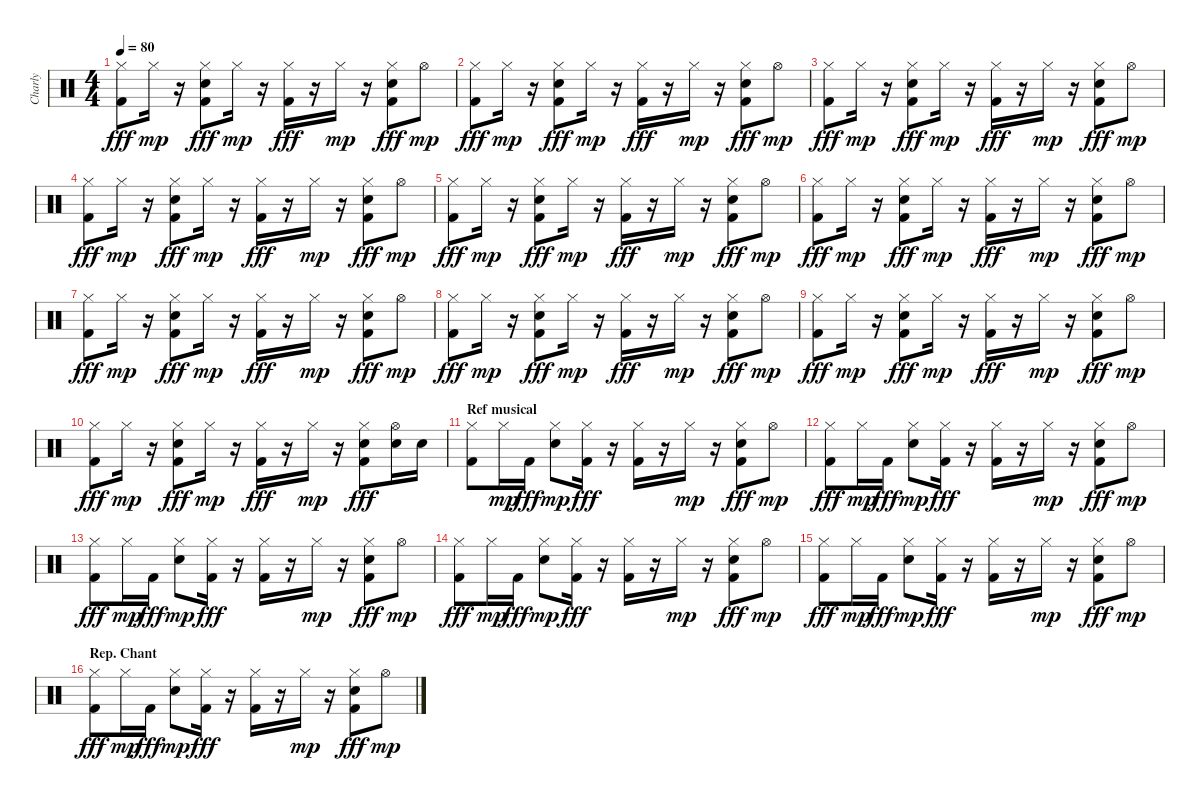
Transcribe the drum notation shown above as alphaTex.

\track ("Charly" "Charly") {instrument percussion}
\staff {score}
\articulation defaults
\ts (4 4)
\tempo 80
\clef neutral
\ks c
("Hi-Hat (closed)" "Kick (hit) 2").8{dy fff} "Hi-Hat (closed)".16{dy mp} r.16 ("Hi-Hat (closed)" "Snare (hit) 2" "Kick (hit) 2").8{dy fff} "Hi-Hat (closed)".16{dy mp} r.16 ("Hi-Hat (closed)" "Kick (hit) 2").16{dy fff} r.16 "Hi-Hat (closed)".16{dy mp} r.16 ("Hi-Hat (closed)" "Snare (hit) 2" "Kick (hit) 2").8{dy fff} "Hi-Hat (open)".8{dy mp} |
("Hi-Hat (closed)" "Kick (hit) 2").8{dy fff} "Hi-Hat (closed)".16{dy mp} r.16 ("Hi-Hat (closed)" "Snare (hit) 2" "Kick (hit) 2").8{dy fff} "Hi-Hat (closed)".16{dy mp} r.16 ("Hi-Hat (closed)" "Kick (hit) 2").16{dy fff} r.16 "Hi-Hat (closed)".16{dy mp} r.16 ("Hi-Hat (closed)" "Snare (hit) 2" "Kick (hit) 2").8{dy fff} "Hi-Hat (open)".8{dy mp} |
("Hi-Hat (closed)" "Kick (hit) 2").8{dy fff} "Hi-Hat (closed)".16{dy mp} r.16 ("Hi-Hat (closed)" "Snare (hit) 2" "Kick (hit) 2").8{dy fff} "Hi-Hat (closed)".16{dy mp} r.16 ("Hi-Hat (closed)" "Kick (hit) 2").16{dy fff} r.16 "Hi-Hat (closed)".16{dy mp} r.16 ("Hi-Hat (closed)" "Snare (hit) 2" "Kick (hit) 2").8{dy fff} "Hi-Hat (open)".8{dy mp} |
("Hi-Hat (closed)" "Kick (hit) 2").8{dy fff} "Hi-Hat (closed)".16{dy mp} r.16 ("Hi-Hat (closed)" "Snare (hit) 2" "Kick (hit) 2").8{dy fff} "Hi-Hat (closed)".16{dy mp} r.16 ("Hi-Hat (closed)" "Kick (hit) 2").16{dy fff} r.16 "Hi-Hat (closed)".16{dy mp} r.16 ("Hi-Hat (closed)" "Snare (hit) 2" "Kick (hit) 2").8{dy fff} "Hi-Hat (open)".8{dy mp} |
("Hi-Hat (closed)" "Kick (hit) 2").8{dy fff} "Hi-Hat (closed)".16{dy mp} r.16 ("Hi-Hat (closed)" "Snare (hit) 2" "Kick (hit) 2").8{dy fff} "Hi-Hat (closed)".16{dy mp} r.16 ("Hi-Hat (closed)" "Kick (hit) 2").16{dy fff} r.16 "Hi-Hat (closed)".16{dy mp} r.16 ("Hi-Hat (closed)" "Snare (hit) 2" "Kick (hit) 2").8{dy fff} "Hi-Hat (open)".8{dy mp} |
("Hi-Hat (closed)" "Kick (hit) 2").8{dy fff} "Hi-Hat (closed)".16{dy mp} r.16 ("Hi-Hat (closed)" "Snare (hit) 2" "Kick (hit) 2").8{dy fff} "Hi-Hat (closed)".16{dy mp} r.16 ("Hi-Hat (closed)" "Kick (hit) 2").16{dy fff} r.16 "Hi-Hat (closed)".16{dy mp} r.16 ("Hi-Hat (closed)" "Snare (hit) 2" "Kick (hit) 2").8{dy fff} "Hi-Hat (open)".8{dy mp} |
("Hi-Hat (closed)" "Kick (hit) 2").8{dy fff} "Hi-Hat (closed)".16{dy mp} r.16 ("Hi-Hat (closed)" "Snare (hit) 2" "Kick (hit) 2").8{dy fff} "Hi-Hat (closed)".16{dy mp} r.16 ("Hi-Hat (closed)" "Kick (hit) 2").16{dy fff} r.16 "Hi-Hat (closed)".16{dy mp} r.16 ("Hi-Hat (closed)" "Snare (hit) 2" "Kick (hit) 2").8{dy fff} "Hi-Hat (open)".8{dy mp} |
("Hi-Hat (closed)" "Kick (hit) 2").8{dy fff} "Hi-Hat (closed)".16{dy mp} r.16 ("Hi-Hat (closed)" "Snare (hit) 2" "Kick (hit) 2").8{dy fff} "Hi-Hat (closed)".16{dy mp} r.16 ("Hi-Hat (closed)" "Kick (hit) 2").16{dy fff} r.16 "Hi-Hat (closed)".16{dy mp} r.16 ("Hi-Hat (closed)" "Snare (hit) 2" "Kick (hit) 2").8{dy fff} "Hi-Hat (open)".8{dy mp} |
("Hi-Hat (closed)" "Kick (hit) 2").8{dy fff} "Hi-Hat (closed)".16{dy mp} r.16 ("Hi-Hat (closed)" "Snare (hit) 2" "Kick (hit) 2").8{dy fff} "Hi-Hat (closed)".16{dy mp} r.16 ("Hi-Hat (closed)" "Kick (hit) 2").16{dy fff} r.16 "Hi-Hat (closed)".16{dy mp} r.16 ("Hi-Hat (closed)" "Snare (hit) 2" "Kick (hit) 2").8{dy fff} "Hi-Hat (open)".8{dy mp} |
("Hi-Hat (closed)" "Kick (hit) 2").8{dy fff} "Hi-Hat (closed)".16{dy mp} r.16 ("Hi-Hat (closed)" "Snare (hit) 2" "Kick (hit) 2").8{dy fff} "Hi-Hat (closed)".16{dy mp} r.16 ("Hi-Hat (closed)" "Kick (hit) 2").16{dy fff} r.16 "Hi-Hat (closed)".16{dy mp} r.16 ("Hi-Hat (closed)" "Snare (hit) 2" "Kick (hit) 2").8{dy fff} ("Hi-Hat (open)" "Snare (hit) 2").16 "Snare (hit) 2".16 |
\section ("" "Ref musical")
("Hi-Hat (closed)" "Kick (hit) 2").8 "Hi-Hat (closed)".16{dy mp} "Kick (hit) 2".16{dy fff} ("Hi-Hat (closed)" "Snare (hit) 2").8{dy mp} ("Hi-Hat (closed)" "Kick (hit) 2").16{dy fff} r.16 ("Hi-Hat (closed)" "Kick (hit) 2").16 r.16 "Hi-Hat (closed)".16{dy mp} r.16 ("Hi-Hat (closed)" "Snare (hit) 2" "Kick (hit) 2").8{dy fff} "Hi-Hat (open)".8{dy mp} |
("Hi-Hat (closed)" "Kick (hit) 2").8{dy fff} "Hi-Hat (closed)".16{dy mp} "Kick (hit) 2".16{dy fff} ("Hi-Hat (closed)" "Snare (hit) 2").8{dy mp} ("Hi-Hat (closed)" "Kick (hit) 2").16{dy fff} r.16 ("Hi-Hat (closed)" "Kick (hit) 2").16 r.16 "Hi-Hat (closed)".16{dy mp} r.16 ("Hi-Hat (closed)" "Snare (hit) 2" "Kick (hit) 2").8{dy fff} "Hi-Hat (open)".8{dy mp} |
("Hi-Hat (closed)" "Kick (hit) 2").8{dy fff} "Hi-Hat (closed)".16{dy mp} "Kick (hit) 2".16{dy fff} ("Hi-Hat (closed)" "Snare (hit) 2").8{dy mp} ("Hi-Hat (closed)" "Kick (hit) 2").16{dy fff} r.16 ("Hi-Hat (closed)" "Kick (hit) 2").16 r.16 "Hi-Hat (closed)".16{dy mp} r.16 ("Hi-Hat (closed)" "Snare (hit) 2" "Kick (hit) 2").8{dy fff} "Hi-Hat (open)".8{dy mp} |
("Hi-Hat (closed)" "Kick (hit) 2").8{dy fff} "Hi-Hat (closed)".16{dy mp} "Kick (hit) 2".16{dy fff} ("Hi-Hat (closed)" "Snare (hit) 2").8{dy mp} ("Hi-Hat (closed)" "Kick (hit) 2").16{dy fff} r.16 ("Hi-Hat (closed)" "Kick (hit) 2").16 r.16 "Hi-Hat (closed)".16{dy mp} r.16 ("Hi-Hat (closed)" "Snare (hit) 2" "Kick (hit) 2").8{dy fff} "Hi-Hat (open)".8{dy mp} |
("Hi-Hat (closed)" "Kick (hit) 2").8{dy fff} "Hi-Hat (closed)".16{dy mp} "Kick (hit) 2".16{dy fff} ("Hi-Hat (closed)" "Snare (hit) 2").8{dy mp} ("Hi-Hat (closed)" "Kick (hit) 2").16{dy fff} r.16 ("Hi-Hat (closed)" "Kick (hit) 2").16 r.16 "Hi-Hat (closed)".16{dy mp} r.16 ("Hi-Hat (closed)" "Snare (hit) 2" "Kick (hit) 2").8{dy fff} "Hi-Hat (open)".8{dy mp} |
\section ("" "Rep. Chant")
("Hi-Hat (closed)" "Kick (hit) 2").8{dy fff} "Hi-Hat (closed)".16{dy mp} "Kick (hit) 2".16{dy fff} ("Hi-Hat (closed)" "Snare (hit) 2").8{dy mp} ("Hi-Hat (closed)" "Kick (hit) 2").16{dy fff} r.16 ("Hi-Hat (closed)" "Kick (hit) 2").16 r.16 "Hi-Hat (closed)".16{dy mp} r.16 ("Hi-Hat (closed)" "Snare (hit) 2" "Kick (hit) 2").8{dy fff} "Hi-Hat (open)".8{dy mp}
